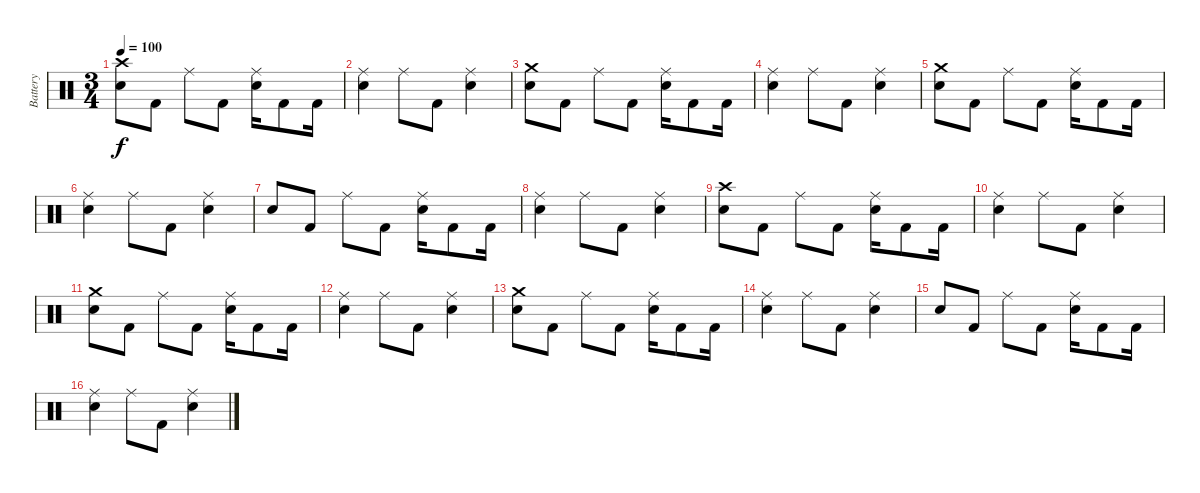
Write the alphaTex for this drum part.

\track ("Battery" "Battery") {instrument percussion}
\staff {score}
\articulation defaults
\ts (3 4)
\tempo 100
\clef neutral
\ks c
("Crash high (hit)" "Electric Snare (hit)").8{dy f} "Kick (hit) 2".8 "Ride (middle)".8 "Kick (hit) 2".8 ("Ride (middle)" "Electric Snare (hit)").16 "Kick (hit) 2".8 "Kick (hit) 2".16 |
("Ride (middle)" "Electric Snare (hit)").4 "Ride (middle)".8 "Kick (hit) 2".8 ("Ride (middle)" "Electric Snare (hit)").4 |
("Crash medium (hit)" "Electric Snare (hit)").8 "Kick (hit) 2".8 "Ride (middle)".8 "Kick (hit) 2".8 ("Ride (middle)" "Electric Snare (hit)").16 "Kick (hit) 2".8 "Kick (hit) 2".16 |
("Ride (middle)" "Electric Snare (hit)").4 "Ride (middle)".8 "Kick (hit) 2".8 ("Ride (middle)" "Electric Snare (hit)").4 |
("Crash medium (hit)" "Electric Snare (hit)").8 "Kick (hit) 2".8 "Ride (middle)".8 "Kick (hit) 2".8 ("Ride (middle)" "Electric Snare (hit)").16 "Kick (hit) 2".8 "Kick (hit) 2".16 |
("Ride (middle)" "Electric Snare (hit)").4 "Ride (middle)".8 "Kick (hit) 2".8 ("Ride (middle)" "Electric Snare (hit)").4 |
"Electric Snare (hit)".8 "Kick (hit) 2".8 "Ride (middle)".8 "Kick (hit) 2".8 ("Ride (middle)" "Electric Snare (hit)").16 "Kick (hit) 2".8 "Kick (hit) 2".16 |
("Ride (middle)" "Electric Snare (hit)").4 "Ride (middle)".8 "Kick (hit) 2".8 ("Ride (middle)" "Electric Snare (hit)").4 |
("Crash high (hit)" "Electric Snare (hit)").8 "Kick (hit) 2".8 "Ride (middle)".8 "Kick (hit) 2".8 ("Ride (middle)" "Electric Snare (hit)").16 "Kick (hit) 2".8 "Kick (hit) 2".16 |
("Ride (middle)" "Electric Snare (hit)").4 "Ride (middle)".8 "Kick (hit) 2".8 ("Ride (middle)" "Electric Snare (hit)").4 |
("Crash medium (hit)" "Electric Snare (hit)").8 "Kick (hit) 2".8 "Ride (middle)".8 "Kick (hit) 2".8 ("Ride (middle)" "Electric Snare (hit)").16 "Kick (hit) 2".8 "Kick (hit) 2".16 |
("Ride (middle)" "Electric Snare (hit)").4 "Ride (middle)".8 "Kick (hit) 2".8 ("Ride (middle)" "Electric Snare (hit)").4 |
("Crash medium (hit)" "Electric Snare (hit)").8 "Kick (hit) 2".8 "Ride (middle)".8 "Kick (hit) 2".8 ("Ride (middle)" "Electric Snare (hit)").16 "Kick (hit) 2".8 "Kick (hit) 2".16 |
("Ride (middle)" "Electric Snare (hit)").4 "Ride (middle)".8 "Kick (hit) 2".8 ("Ride (middle)" "Electric Snare (hit)").4 |
"Electric Snare (hit)".8 "Kick (hit) 2".8 "Ride (middle)".8 "Kick (hit) 2".8 ("Ride (middle)" "Electric Snare (hit)").16 "Kick (hit) 2".8 "Kick (hit) 2".16 |
("Ride (middle)" "Electric Snare (hit)").4 "Ride (middle)".8 "Kick (hit) 2".8 ("Ride (middle)" "Electric Snare (hit)").4
